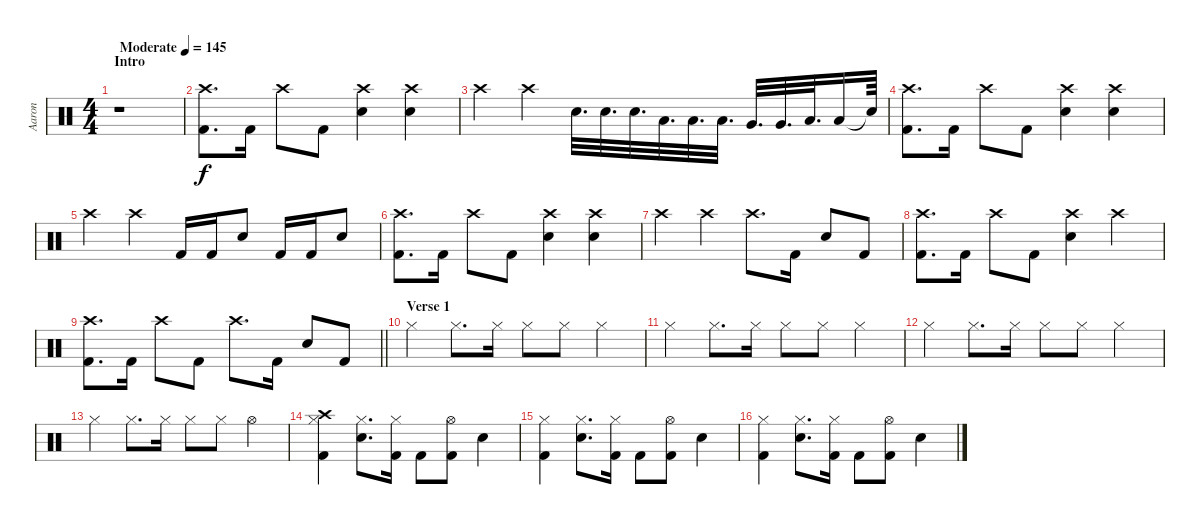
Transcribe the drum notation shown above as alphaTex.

\track ("Aaron" "Aaron") {instrument percussion}
\staff {score}
\articulation defaults
\ts (4 4)
\section ("" "Intro")
\tempo (145 "Moderate")
\clef neutral
\ks c
r.1{dy f} |
("Crash high (hit)" "Kick (hit) 2").8{d} "Kick (hit) 2".16 "Crash high (hit)".8 "Kick (hit) 2".8 ("Crash high (hit)" "Snare (hit) 2").4 ("Crash high (hit)" "Snare (hit) 2").4 |
"Crash high (hit)".4 "Crash high (hit)".4 "Snare (hit) 2".32{d} "Snare (hit) 2".32{d} "Snare (hit) 2".32{d} "Low Tom (hit)".32{d} "Low Tom (hit)".32{d} "Low Tom (hit)".32{d} "Very Low Tom (hit)".32{d} "Very Low Tom (hit)".32{d} "Low Floor Tom (hit)".32{d} "Low Floor Tom (hit)".16 "Snare (hit)"{t}.64 |
("Crash high (hit)" "Kick (hit) 2").8{d} "Kick (hit) 2".16 "Crash high (hit)".8 "Kick (hit) 2".8 ("Crash high (hit)" "Snare (hit) 2").4 ("Crash high (hit)" "Snare (hit) 2").4 |
"Crash high (hit)".4 "Crash high (hit)".4 "Kick (hit) 2".16 "Kick (hit) 2".16 "Snare (hit) 2".8 "Kick (hit) 2".16 "Kick (hit) 2".16 "Snare (hit) 2".8 |
("Crash high (hit)" "Kick (hit) 2").8{d} "Kick (hit) 2".16 "Crash high (hit)".8 "Kick (hit) 2".8 ("Crash high (hit)" "Snare (hit) 2").4 ("Crash high (hit)" "Snare (hit) 2").4 |
"Crash high (hit)".4 "Crash high (hit)".4 "Crash high (hit)".8{d} "Kick (hit) 2".16 "Snare (hit) 2".8 "Kick (hit) 2".8 |
("Crash high (hit)" "Kick (hit) 2").8{d} "Kick (hit) 2".16 "Crash high (hit)".8 "Kick (hit) 2".8 ("Crash high (hit)" "Snare (hit) 2").4 "Crash high (hit)".4 |
\barLineRight lightlight
("Crash high (hit)" "Kick (hit) 2").8{d} "Kick (hit) 2".16 "Crash high (hit)".8 "Kick (hit) 2".8 "Crash high (hit)".8{d} "Kick (hit) 2".16 "Snare (hit) 2".8 "Kick (hit) 2".8 |
\section ("" "Verse 1")
"Hi-Hat (closed)".4 "Hi-Hat (closed)".8{d} "Hi-Hat (closed)".16 "Hi-Hat (closed)".8 "Hi-Hat (closed)".8 "Hi-Hat (closed)".4 |
"Hi-Hat (closed)".4 "Hi-Hat (closed)".8{d} "Hi-Hat (closed)".16 "Hi-Hat (closed)".8 "Hi-Hat (closed)".8 "Hi-Hat (closed)".4 |
"Hi-Hat (closed)".4 "Hi-Hat (closed)".8{d} "Hi-Hat (closed)".16 "Hi-Hat (closed)".8 "Hi-Hat (closed)".8 "Hi-Hat (closed)".4 |
"Hi-Hat (closed)".4 "Hi-Hat (closed)".8{d} "Hi-Hat (closed)".16 "Hi-Hat (closed)".8 "Hi-Hat (closed)".8 "Hi-Hat (open)".4 |
("Hi-Hat (closed)" "Crash high (hit)" "Kick (hit) 2").4 ("Hi-Hat (closed)" "Snare (hit) 2").8{d} ("Hi-Hat (closed)" "Kick (hit) 2").16 "Kick (hit) 2".8 ("Hi-Hat (open)" "Kick (hit) 2").8 "Snare (hit) 2".4 |
("Hi-Hat (closed)" "Kick (hit) 2").4 ("Hi-Hat (closed)" "Snare (hit) 2").8{d} ("Hi-Hat (closed)" "Kick (hit) 2").16 "Kick (hit) 2".8 ("Hi-Hat (open)" "Kick (hit) 2").8 "Snare (hit) 2".4 |
("Hi-Hat (closed)" "Kick (hit) 2").4 ("Hi-Hat (closed)" "Snare (hit) 2").8{d} ("Hi-Hat (closed)" "Kick (hit) 2").16 "Kick (hit) 2".8 ("Hi-Hat (open)" "Kick (hit) 2").8 "Snare (hit) 2".4
